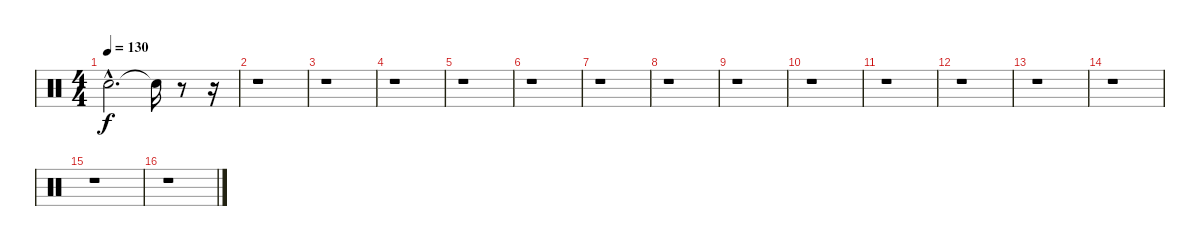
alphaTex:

\track "" {instrument percussion}
\staff {score}
\articulation defaults
\ts (4 4)
\tempo 130
\clef neutral
\ks c "Snare (hit)"{hac t}.2{d dy f} "Snare (hit)"{t}.16
r.8 r.16 |
r.1 |
r.1 |
r.1 |
r.1 |
r.1 |
r.1 |
r.1 |
r.1 |
r.1 |
r.1 |
r.1 |
r.1 |
r.1 |
r.1 |
r.1
